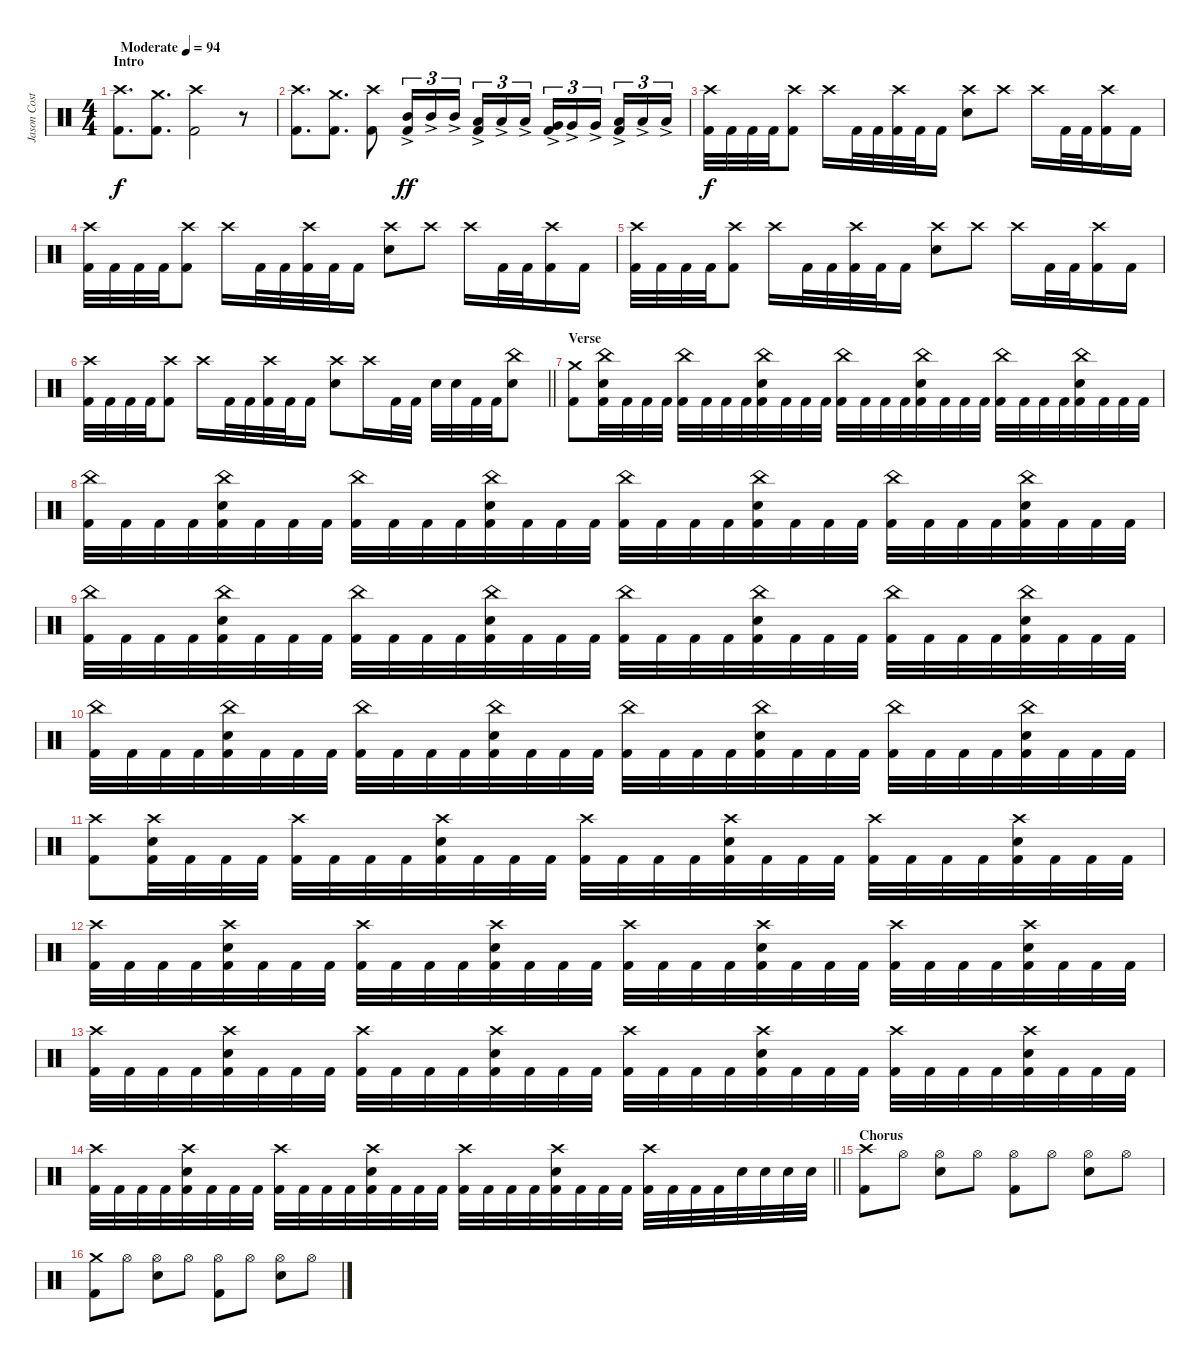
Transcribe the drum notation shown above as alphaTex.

\track ("Jason Costa" "Jason Cost") {instrument percussion}
\staff {score}
\articulation defaults
\ts (4 4)
\section ("" "Intro")
\tempo (94 "Moderate")
\clef neutral
\ks c
("Crash high (hit)" "Kick (hit) 2").8{d dy f} ("Crash medium (hit)" "Kick (hit) 2").8{d} ("Crash high (hit)" "Kick (hit) 2").2 r.8 |
("Crash high (hit)" "Kick (hit) 2").8{d} ("Crash medium (hit)" "Kick (hit) 2").8{d} ("Crash high (hit)" "Kick (hit) 2").8 ("Mid Tom (hit)"{ac} "Kick (hit) 2").16{tu (3 2) dy ff} "Mid Tom (hit)"{ac}.16{tu (3 2)} "Mid Tom (hit)"{ac}.16{tu (3 2) beam splitsecondary} ("Low Tom (hit)"{ac} "Kick (hit) 2").16{tu (3 2)} "Low Tom (hit)"{ac}.16{tu (3 2)} "Low Tom (hit)"{ac}.16{tu (3 2)} ("Very Low Tom (hit)"{ac} "Kick (hit) 2").16{tu (3 2)} "Very Low Tom (hit)"{ac}.16{tu (3 2)} "Very Low Tom (hit)"{ac}.16{tu (3 2) beam splitsecondary} ("Low Floor Tom (hit)"{ac} "Kick (hit) 2").16{tu (3 2)} "Low Floor Tom (hit)"{ac}.16{tu (3 2)} "Low Floor Tom (hit)"{ac}.16{tu (3 2)} |
("Crash high (hit)" "Kick (hit) 2").32{dy f} "Kick (hit) 2".32 "Kick (hit) 2".32 "Kick (hit) 2".32 ("Crash high (hit)" "Kick (hit) 2").8 "Crash high (hit)".16 "Kick (hit) 2".32 "Kick (hit) 2".32 ("Crash high (hit)" "Kick (hit) 2").32 "Kick (hit) 2".32 "Kick (hit) 2".16 ("Crash high (hit)" "Snare (hit) 2").8 "Crash high (hit)".8 "Crash high (hit)".16 "Kick (hit) 2".32 "Kick (hit) 2".32 ("Crash high (hit)" "Kick (hit) 2").16 "Kick (hit) 2".16 |
("Crash high (hit)" "Kick (hit) 2").32 "Kick (hit) 2".32 "Kick (hit) 2".32 "Kick (hit) 2".32 ("Crash high (hit)" "Kick (hit) 2").8 "Crash high (hit)".16 "Kick (hit) 2".32 "Kick (hit) 2".32 ("Crash high (hit)" "Kick (hit) 2").32 "Kick (hit) 2".32 "Kick (hit) 2".16 ("Crash high (hit)" "Snare (hit) 2").8 "Crash high (hit)".8 "Crash high (hit)".16 "Kick (hit) 2".32 "Kick (hit) 2".32 ("Crash high (hit)" "Kick (hit) 2").16 "Kick (hit) 2".16 |
("Crash high (hit)" "Kick (hit) 2").32 "Kick (hit) 2".32 "Kick (hit) 2".32 "Kick (hit) 2".32 ("Crash high (hit)" "Kick (hit) 2").8 "Crash high (hit)".16 "Kick (hit) 2".32 "Kick (hit) 2".32 ("Crash high (hit)" "Kick (hit) 2").32 "Kick (hit) 2".32 "Kick (hit) 2".16 ("Crash high (hit)" "Snare (hit) 2").8 "Crash high (hit)".8 "Crash high (hit)".16 "Kick (hit) 2".32 "Kick (hit) 2".32 ("Crash high (hit)" "Kick (hit) 2").16 "Kick (hit) 2".16 |
\barLineRight lightlight
("Crash high (hit)" "Kick (hit) 2").32 "Kick (hit) 2".32 "Kick (hit) 2".32 "Kick (hit) 2".32 ("Crash high (hit)" "Kick (hit) 2").8 "Crash high (hit)".16 "Kick (hit) 2".32 "Kick (hit) 2".32 ("Crash high (hit)" "Kick (hit) 2").32 "Kick (hit) 2".32 "Kick (hit) 2".16 ("Crash high (hit)" "Snare (hit) 2").8 "Crash high (hit)".16 "Kick (hit) 2".32 "Kick (hit) 2".32 "Snare (hit) 2".32 "Snare (hit) 2".32 "Kick (hit) 2".32 "Kick (hit) 2".32 ("China (hit)" "Snare (hit) 2").8 |
\section ("" "Verse")
("Crash medium (hit)" "Kick (hit) 2").8 ("China (hit)" "Snare (hit) 2" "Kick (hit) 2").32 "Kick (hit) 2".32 "Kick (hit) 2".32 "Kick (hit) 2".32 ("China (hit)" "Kick (hit) 2").32 "Kick (hit) 2".32 "Kick (hit) 2".32 "Kick (hit) 2".32 ("China (hit)" "Snare (hit) 2" "Kick (hit) 2").32 "Kick (hit) 2".32 "Kick (hit) 2".32 "Kick (hit) 2".32 ("China (hit)" "Kick (hit) 2").32 "Kick (hit) 2".32 "Kick (hit) 2".32 "Kick (hit) 2".32 ("China (hit)" "Snare (hit) 2" "Kick (hit) 2").32 "Kick (hit) 2".32 "Kick (hit) 2".32 "Kick (hit) 2".32 ("China (hit)" "Kick (hit) 2").32 "Kick (hit) 2".32 "Kick (hit) 2".32 "Kick (hit) 2".32 ("China (hit)" "Snare (hit) 2" "Kick (hit) 2").32 "Kick (hit) 2".32 "Kick (hit) 2".32 "Kick (hit) 2".32 |
("China (hit)" "Kick (hit) 2").32 "Kick (hit) 2".32 "Kick (hit) 2".32 "Kick (hit) 2".32 ("China (hit)" "Snare (hit) 2" "Kick (hit) 2").32 "Kick (hit) 2".32 "Kick (hit) 2".32 "Kick (hit) 2".32 ("China (hit)" "Kick (hit) 2").32 "Kick (hit) 2".32 "Kick (hit) 2".32 "Kick (hit) 2".32 ("China (hit)" "Snare (hit) 2" "Kick (hit) 2").32 "Kick (hit) 2".32 "Kick (hit) 2".32 "Kick (hit) 2".32 ("China (hit)" "Kick (hit) 2").32 "Kick (hit) 2".32 "Kick (hit) 2".32 "Kick (hit) 2".32 ("China (hit)" "Snare (hit) 2" "Kick (hit) 2").32 "Kick (hit) 2".32 "Kick (hit) 2".32 "Kick (hit) 2".32 ("China (hit)" "Kick (hit) 2").32 "Kick (hit) 2".32 "Kick (hit) 2".32 "Kick (hit) 2".32 ("China (hit)" "Snare (hit) 2" "Kick (hit) 2").32 "Kick (hit) 2".32 "Kick (hit) 2".32 "Kick (hit) 2".32 |
("China (hit)" "Kick (hit) 2").32 "Kick (hit) 2".32 "Kick (hit) 2".32 "Kick (hit) 2".32 ("China (hit)" "Snare (hit) 2" "Kick (hit) 2").32 "Kick (hit) 2".32 "Kick (hit) 2".32 "Kick (hit) 2".32 ("China (hit)" "Kick (hit) 2").32 "Kick (hit) 2".32 "Kick (hit) 2".32 "Kick (hit) 2".32 ("China (hit)" "Snare (hit) 2" "Kick (hit) 2").32 "Kick (hit) 2".32 "Kick (hit) 2".32 "Kick (hit) 2".32 ("China (hit)" "Kick (hit) 2").32 "Kick (hit) 2".32 "Kick (hit) 2".32 "Kick (hit) 2".32 ("China (hit)" "Snare (hit) 2" "Kick (hit) 2").32 "Kick (hit) 2".32 "Kick (hit) 2".32 "Kick (hit) 2".32 ("China (hit)" "Kick (hit) 2").32 "Kick (hit) 2".32 "Kick (hit) 2".32 "Kick (hit) 2".32 ("China (hit)" "Snare (hit) 2" "Kick (hit) 2").32 "Kick (hit) 2".32 "Kick (hit) 2".32 "Kick (hit) 2".32 |
("China (hit)" "Kick (hit) 2").32 "Kick (hit) 2".32 "Kick (hit) 2".32 "Kick (hit) 2".32 ("China (hit)" "Snare (hit) 2" "Kick (hit) 2").32 "Kick (hit) 2".32 "Kick (hit) 2".32 "Kick (hit) 2".32 ("China (hit)" "Kick (hit) 2").32 "Kick (hit) 2".32 "Kick (hit) 2".32 "Kick (hit) 2".32 ("China (hit)" "Snare (hit) 2" "Kick (hit) 2").32 "Kick (hit) 2".32 "Kick (hit) 2".32 "Kick (hit) 2".32 ("China (hit)" "Kick (hit) 2").32 "Kick (hit) 2".32 "Kick (hit) 2".32 "Kick (hit) 2".32 ("China (hit)" "Snare (hit) 2" "Kick (hit) 2").32 "Kick (hit) 2".32 "Kick (hit) 2".32 "Kick (hit) 2".32 ("China (hit)" "Kick (hit) 2").32 "Kick (hit) 2".32 "Kick (hit) 2".32 "Kick (hit) 2".32 ("China (hit)" "Snare (hit) 2" "Kick (hit) 2").32 "Kick (hit) 2".32 "Kick (hit) 2".32 "Kick (hit) 2".32 |
("Crash high (hit)" "Kick (hit) 2").8 ("Crash high (hit)" "Snare (hit) 2" "Kick (hit) 2").32 "Kick (hit) 2".32 "Kick (hit) 2".32 "Kick (hit) 2".32 ("Crash high (hit)" "Kick (hit) 2").32 "Kick (hit) 2".32 "Kick (hit) 2".32 "Kick (hit) 2".32 ("Crash high (hit)" "Snare (hit) 2" "Kick (hit) 2").32 "Kick (hit) 2".32 "Kick (hit) 2".32 "Kick (hit) 2".32 ("Crash high (hit)" "Kick (hit) 2").32 "Kick (hit) 2".32 "Kick (hit) 2".32 "Kick (hit) 2".32 ("Crash high (hit)" "Snare (hit) 2" "Kick (hit) 2").32 "Kick (hit) 2".32 "Kick (hit) 2".32 "Kick (hit) 2".32 ("Crash high (hit)" "Kick (hit) 2").32 "Kick (hit) 2".32 "Kick (hit) 2".32 "Kick (hit) 2".32 ("Crash high (hit)" "Snare (hit) 2" "Kick (hit) 2").32 "Kick (hit) 2".32 "Kick (hit) 2".32 "Kick (hit) 2".32 |
("Crash high (hit)" "Kick (hit) 2").32 "Kick (hit) 2".32 "Kick (hit) 2".32 "Kick (hit) 2".32 ("Crash high (hit)" "Snare (hit) 2" "Kick (hit) 2").32 "Kick (hit) 2".32 "Kick (hit) 2".32 "Kick (hit) 2".32 ("Crash high (hit)" "Kick (hit) 2").32 "Kick (hit) 2".32 "Kick (hit) 2".32 "Kick (hit) 2".32 ("Crash high (hit)" "Snare (hit) 2" "Kick (hit) 2").32 "Kick (hit) 2".32 "Kick (hit) 2".32 "Kick (hit) 2".32 ("Crash high (hit)" "Kick (hit) 2").32 "Kick (hit) 2".32 "Kick (hit) 2".32 "Kick (hit) 2".32 ("Crash high (hit)" "Snare (hit) 2" "Kick (hit) 2").32 "Kick (hit) 2".32 "Kick (hit) 2".32 "Kick (hit) 2".32 ("Crash high (hit)" "Kick (hit) 2").32 "Kick (hit) 2".32 "Kick (hit) 2".32 "Kick (hit) 2".32 ("Crash high (hit)" "Snare (hit) 2" "Kick (hit) 2").32 "Kick (hit) 2".32 "Kick (hit) 2".32 "Kick (hit) 2".32 |
("Crash high (hit)" "Kick (hit) 2").32 "Kick (hit) 2".32 "Kick (hit) 2".32 "Kick (hit) 2".32 ("Crash high (hit)" "Snare (hit) 2" "Kick (hit) 2").32 "Kick (hit) 2".32 "Kick (hit) 2".32 "Kick (hit) 2".32 ("Crash high (hit)" "Kick (hit) 2").32 "Kick (hit) 2".32 "Kick (hit) 2".32 "Kick (hit) 2".32 ("Crash high (hit)" "Snare (hit) 2" "Kick (hit) 2").32 "Kick (hit) 2".32 "Kick (hit) 2".32 "Kick (hit) 2".32 ("Crash high (hit)" "Kick (hit) 2").32 "Kick (hit) 2".32 "Kick (hit) 2".32 "Kick (hit) 2".32 ("Crash high (hit)" "Snare (hit) 2" "Kick (hit) 2").32 "Kick (hit) 2".32 "Kick (hit) 2".32 "Kick (hit) 2".32 ("Crash high (hit)" "Kick (hit) 2").32 "Kick (hit) 2".32 "Kick (hit) 2".32 "Kick (hit) 2".32 ("Crash high (hit)" "Snare (hit) 2" "Kick (hit) 2").32 "Kick (hit) 2".32 "Kick (hit) 2".32 "Kick (hit) 2".32 |
\barLineRight lightlight
("Crash high (hit)" "Kick (hit) 2").32 "Kick (hit) 2".32 "Kick (hit) 2".32 "Kick (hit) 2".32 ("Crash high (hit)" "Snare (hit) 2" "Kick (hit) 2").32 "Kick (hit) 2".32 "Kick (hit) 2".32 "Kick (hit) 2".32 ("Crash high (hit)" "Kick (hit) 2").32 "Kick (hit) 2".32 "Kick (hit) 2".32 "Kick (hit) 2".32 ("Crash high (hit)" "Snare (hit) 2" "Kick (hit) 2").32 "Kick (hit) 2".32 "Kick (hit) 2".32 "Kick (hit) 2".32 ("Crash high (hit)" "Kick (hit) 2").32 "Kick (hit) 2".32 "Kick (hit) 2".32 "Kick (hit) 2".32 ("Crash high (hit)" "Snare (hit) 2" "Kick (hit) 2").32 "Kick (hit) 2".32 "Kick (hit) 2".32 "Kick (hit) 2".32 ("Crash high (hit)" "Kick (hit) 2").32 "Kick (hit) 2".32 "Kick (hit) 2".32 "Kick (hit) 2".32 "Snare (hit) 2".32 "Snare (hit) 2".32 "Snare (hit) 2".32 "Snare (hit) 2".32 |
\section ("" "Chorus")
("Crash high (hit)" "Kick (hit) 2").8 "Hi-Hat (open)".8 ("Snare (hit) 2" "Hi-Hat (open)").8 "Hi-Hat (open)".8 ("Hi-Hat (open)" "Kick (hit) 2").8 "Hi-Hat (open)".8 ("Snare (hit) 2" "Hi-Hat (open)").8 "Hi-Hat (open)".8 |
("Crash medium (hit)" "Kick (hit) 2").8 "Hi-Hat (open)".8 ("Snare (hit) 2" "Hi-Hat (open)").8 "Hi-Hat (open)".8 ("Hi-Hat (open)" "Kick (hit) 2").8 "Hi-Hat (open)".8 ("Snare (hit) 2" "Hi-Hat (open)").8 "Hi-Hat (open)".8
